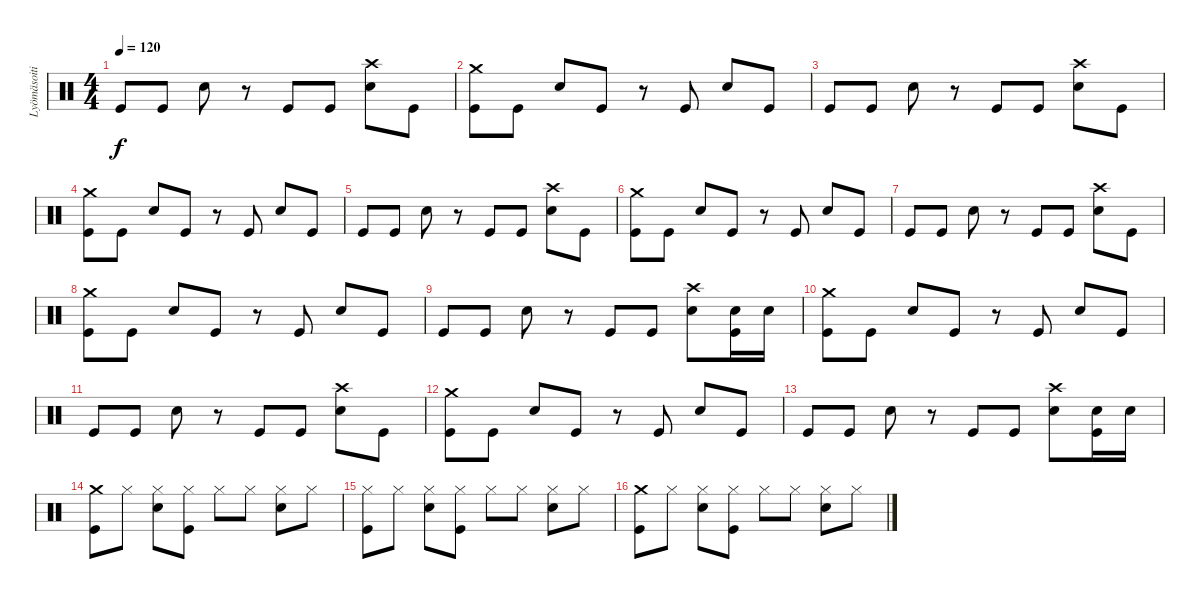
\track ("Lyömäsoitin" "Lyömäsoiti") {instrument percussion}
\staff {score}
\articulation defaults
\ts (4 4)
\tempo 120
\clef neutral
\ks c "Kick (hit)".8{dy f} "Kick (hit)".8 "Snare (hit) 2".8
r.8 "Kick (hit)".8 "Kick (hit)".8 ("Snare (hit) 2" "Crash high (hit)").8 "Kick (hit)".8 |
("Kick (hit)" "Crash medium (hit)").8 "Kick (hit)".8 "Snare (hit) 2".8 "Kick (hit)".8 r.8 "Kick (hit)".8 "Snare (hit) 2".8 "Kick (hit)".8 |
"Kick (hit)".8 "Kick (hit)".8 "Snare (hit) 2".8 r.8 "Kick (hit)".8 "Kick (hit)".8 ("Snare (hit) 2" "Crash high (hit)").8 "Kick (hit)".8 |
("Kick (hit)" "Crash medium (hit)").8 "Kick (hit)".8 "Snare (hit) 2".8 "Kick (hit)".8 r.8 "Kick (hit)".8 "Snare (hit) 2".8 "Kick (hit)".8 |
"Kick (hit)".8 "Kick (hit)".8 "Snare (hit) 2".8 r.8 "Kick (hit)".8 "Kick (hit)".8 ("Snare (hit) 2" "Crash high (hit)").8 "Kick (hit)".8 |
("Kick (hit)" "Crash medium (hit)").8 "Kick (hit)".8 "Snare (hit) 2".8 "Kick (hit)".8 r.8 "Kick (hit)".8 "Snare (hit) 2".8 "Kick (hit)".8 |
"Kick (hit)".8 "Kick (hit)".8 "Snare (hit) 2".8 r.8 "Kick (hit)".8 "Kick (hit)".8 ("Snare (hit) 2" "Crash high (hit)").8 "Kick (hit)".8 |
("Kick (hit)" "Crash medium (hit)").8 "Kick (hit)".8 "Snare (hit) 2".8 "Kick (hit)".8 r.8 "Kick (hit)".8 "Snare (hit) 2".8 "Kick (hit)".8 |
"Kick (hit)".8 "Kick (hit)".8 "Snare (hit) 2".8 r.8 "Kick (hit)".8 "Kick (hit)".8 ("Snare (hit) 2" "Crash high (hit)").8 ("Kick (hit)" "Snare (hit) 2").16 "Snare (hit) 2".16 |
("Kick (hit)" "Crash medium (hit)").8 "Kick (hit)".8 "Snare (hit) 2".8 "Kick (hit)".8 r.8 "Kick (hit)".8 "Snare (hit) 2".8 "Kick (hit)".8 |
"Kick (hit)".8 "Kick (hit)".8 "Snare (hit) 2".8 r.8 "Kick (hit)".8 "Kick (hit)".8 ("Snare (hit) 2" "Crash high (hit)").8 "Kick (hit)".8 |
("Kick (hit)" "Crash medium (hit)").8 "Kick (hit)".8 "Snare (hit) 2".8 "Kick (hit)".8 r.8 "Kick (hit)".8 "Snare (hit) 2".8 "Kick (hit)".8 |
"Kick (hit)".8 "Kick (hit)".8 "Snare (hit) 2".8 r.8 "Kick (hit)".8 "Kick (hit)".8 ("Snare (hit) 2" "Crash high (hit)").8 ("Kick (hit)" "Snare (hit) 2").16 "Snare (hit) 2".16 |
("Crash medium (hit)" "Kick (hit)").8 "Hi-Hat (closed)".8 ("Hi-Hat (closed)" "Snare (hit) 2").8 ("Hi-Hat (closed)" "Kick (hit)").8 "Hi-Hat (closed)".8 "Hi-Hat (closed)".8 ("Hi-Hat (closed)" "Snare (hit) 2").8 "Hi-Hat (closed)".8 |
("Hi-Hat (closed)" "Kick (hit)").8 "Hi-Hat (closed)".8 ("Hi-Hat (closed)" "Snare (hit) 2").8 ("Hi-Hat (closed)" "Kick (hit)").8 "Hi-Hat (closed)".8 "Hi-Hat (closed)".8 ("Hi-Hat (closed)" "Snare (hit) 2").8 "Hi-Hat (closed)".8 |
("Crash medium (hit)" "Kick (hit)").8 "Hi-Hat (closed)".8 ("Hi-Hat (closed)" "Snare (hit) 2").8 ("Hi-Hat (closed)" "Kick (hit)").8 "Hi-Hat (closed)".8 "Hi-Hat (closed)".8 ("Hi-Hat (closed)" "Snare (hit) 2").8 "Hi-Hat (closed)".8
